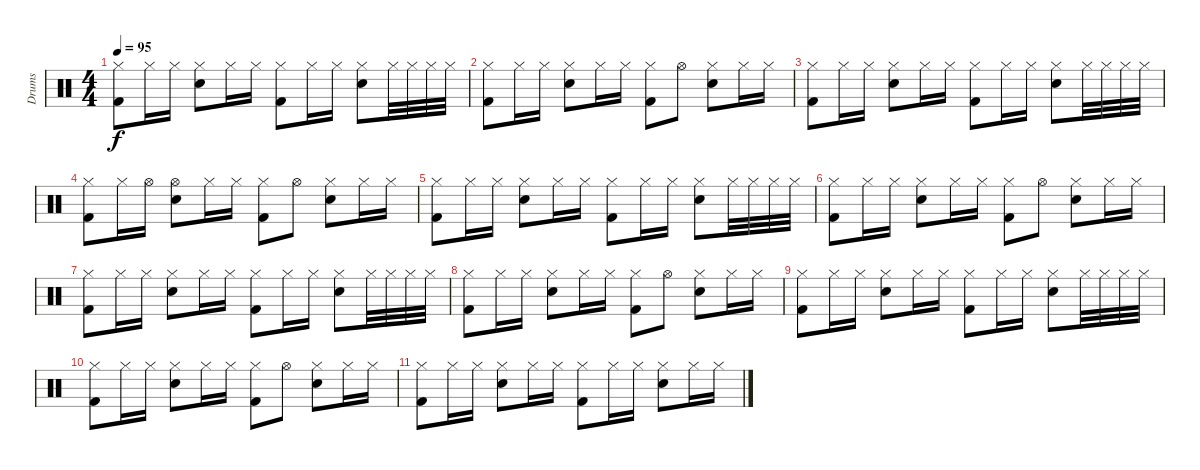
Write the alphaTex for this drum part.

\track ("Drums" "Drums") {instrument percussion}
\staff {score}
\articulation defaults
\ts (4 4)
\tempo 95
\clef neutral
\ks c
("Hi-Hat (closed)" "Kick (hit) 2").8{dy f} "Hi-Hat (closed)".16 "Hi-Hat (closed)".16 ("Hi-Hat (closed)" "Electric Snare (hit)").8 "Hi-Hat (closed)".16 "Hi-Hat (closed)".16 ("Hi-Hat (closed)" "Kick (hit) 2").8 "Hi-Hat (closed)".16 "Hi-Hat (closed)".16 ("Hi-Hat (closed)" "Electric Snare (hit)").8 "Hi-Hat (closed)".32 "Hi-Hat (closed)".32 "Hi-Hat (closed)".32 "Hi-Hat (closed)".32 |
("Hi-Hat (closed)" "Kick (hit) 2").8 "Hi-Hat (closed)".16 "Hi-Hat (closed)".16 ("Hi-Hat (closed)" "Electric Snare (hit)").8 "Hi-Hat (closed)".16 "Hi-Hat (closed)".16 ("Hi-Hat (closed)" "Kick (hit) 2").8 "Hi-Hat (open)".8 ("Hi-Hat (closed)" "Electric Snare (hit)").8 "Hi-Hat (closed)".16 "Hi-Hat (closed)".16 |
("Hi-Hat (closed)" "Kick (hit) 2").8 "Hi-Hat (closed)".16 "Hi-Hat (closed)".16 ("Hi-Hat (closed)" "Electric Snare (hit)").8 "Hi-Hat (closed)".16 "Hi-Hat (closed)".16 ("Hi-Hat (closed)" "Kick (hit) 2").8 "Hi-Hat (closed)".16 "Hi-Hat (closed)".16 ("Hi-Hat (closed)" "Electric Snare (hit)").8 "Hi-Hat (closed)".32 "Hi-Hat (closed)".32 "Hi-Hat (closed)".32 "Hi-Hat (closed)".32 |
("Hi-Hat (closed)" "Kick (hit) 2").8 "Hi-Hat (closed)".16 "Hi-Hat (open)".16 ("Hi-Hat (open)" "Electric Snare (hit)").8 "Hi-Hat (closed)".16 "Hi-Hat (closed)".16 ("Hi-Hat (closed)" "Kick (hit) 2").8 "Hi-Hat (open)".8 ("Hi-Hat (closed)" "Electric Snare (hit)").8 "Hi-Hat (closed)".16 "Hi-Hat (closed)".16 |
("Hi-Hat (closed)" "Kick (hit) 2").8 "Hi-Hat (closed)".16 "Hi-Hat (closed)".16 ("Hi-Hat (closed)" "Electric Snare (hit)").8 "Hi-Hat (closed)".16 "Hi-Hat (closed)".16 ("Hi-Hat (closed)" "Kick (hit) 2").8 "Hi-Hat (closed)".16 "Hi-Hat (closed)".16 ("Hi-Hat (closed)" "Electric Snare (hit)").8 "Hi-Hat (closed)".32 "Hi-Hat (closed)".32 "Hi-Hat (closed)".32 "Hi-Hat (closed)".32 |
("Hi-Hat (closed)" "Kick (hit) 2").8 "Hi-Hat (closed)".16 "Hi-Hat (closed)".16 ("Hi-Hat (closed)" "Electric Snare (hit)").8 "Hi-Hat (closed)".16 "Hi-Hat (closed)".16 ("Hi-Hat (closed)" "Kick (hit) 2").8 "Hi-Hat (open)".8 ("Hi-Hat (closed)" "Electric Snare (hit)").8 "Hi-Hat (closed)".16 "Hi-Hat (closed)".16 |
("Hi-Hat (closed)" "Kick (hit) 2").8 "Hi-Hat (closed)".16 "Hi-Hat (closed)".16 ("Hi-Hat (closed)" "Electric Snare (hit)").8 "Hi-Hat (closed)".16 "Hi-Hat (closed)".16 ("Hi-Hat (closed)" "Kick (hit) 2").8 "Hi-Hat (closed)".16 "Hi-Hat (closed)".16 ("Hi-Hat (closed)" "Electric Snare (hit)").8 "Hi-Hat (closed)".32 "Hi-Hat (closed)".32 "Hi-Hat (closed)".32 "Hi-Hat (closed)".32 |
("Hi-Hat (closed)" "Kick (hit) 2").8 "Hi-Hat (closed)".16 "Hi-Hat (closed)".16 ("Hi-Hat (closed)" "Electric Snare (hit)").8 "Hi-Hat (closed)".16 "Hi-Hat (closed)".16 ("Hi-Hat (closed)" "Kick (hit) 2").8 "Hi-Hat (open)".8 ("Hi-Hat (closed)" "Electric Snare (hit)").8 "Hi-Hat (closed)".16 "Hi-Hat (closed)".16 |
("Hi-Hat (closed)" "Kick (hit) 2").8 "Hi-Hat (closed)".16 "Hi-Hat (closed)".16 ("Hi-Hat (closed)" "Electric Snare (hit)").8 "Hi-Hat (closed)".16 "Hi-Hat (closed)".16 ("Hi-Hat (closed)" "Kick (hit) 2").8 "Hi-Hat (closed)".16 "Hi-Hat (closed)".16 ("Hi-Hat (closed)" "Electric Snare (hit)").8 "Hi-Hat (closed)".32 "Hi-Hat (closed)".32 "Hi-Hat (closed)".32 "Hi-Hat (closed)".32 |
("Hi-Hat (closed)" "Kick (hit) 2").8 "Hi-Hat (closed)".16 "Hi-Hat (closed)".16 ("Hi-Hat (closed)" "Electric Snare (hit)").8 "Hi-Hat (closed)".16 "Hi-Hat (closed)".16 ("Hi-Hat (closed)" "Kick (hit) 2").8 "Hi-Hat (open)".8 ("Hi-Hat (closed)" "Electric Snare (hit)").8 "Hi-Hat (closed)".16 "Hi-Hat (closed)".16 |
("Hi-Hat (closed)" "Kick (hit) 2").8 "Hi-Hat (closed)".16 "Hi-Hat (closed)".16 ("Hi-Hat (closed)" "Electric Snare (hit)").8 "Hi-Hat (closed)".16 "Hi-Hat (closed)".16 ("Hi-Hat (closed)" "Kick (hit) 2").8 "Hi-Hat (closed)".16 "Hi-Hat (closed)".16 ("Hi-Hat (closed)" "Electric Snare (hit)").8 "Hi-Hat (closed)".16 "Hi-Hat (closed)".16
